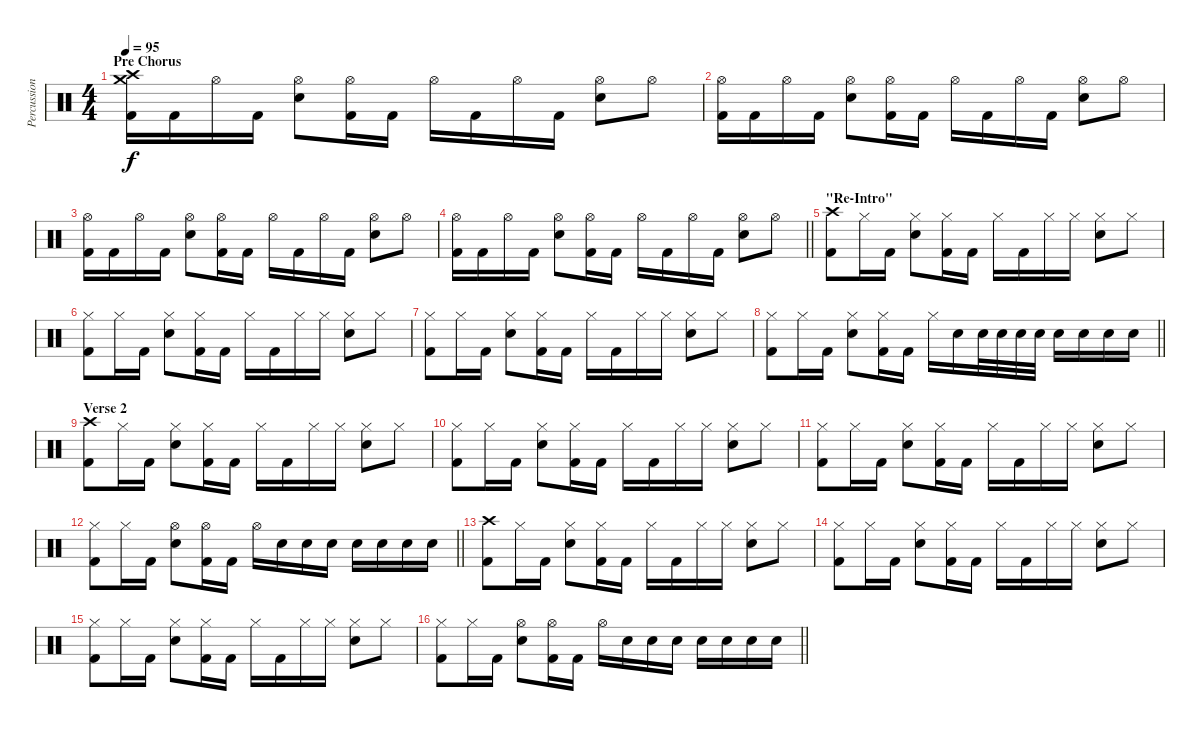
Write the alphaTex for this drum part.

\track ("Percussion" "Percussion") {instrument percussion}
\staff {score}
\articulation defaults
\ts (4 4)
\section ("" "Pre Chorus")
\tempo 95
\clef neutral
\ks c
("Crash medium (hit)" "Crash high (hit)" "Kick (hit) 2").16{dy f} "Kick (hit) 2".16 "Hi-Hat (open)".16 "Kick (hit) 2".16 ("Hi-Hat (open)" "Electric Snare (hit)").8 ("Hi-Hat (open)" "Kick (hit) 2").16 "Kick (hit) 2".16 "Hi-Hat (open)".16 "Kick (hit) 2".16 "Hi-Hat (open)".16 "Kick (hit) 2".16 ("Hi-Hat (open)" "Electric Snare (hit)").8 "Hi-Hat (open)".8 |
("Hi-Hat (open)" "Kick (hit) 2").16 "Kick (hit) 2".16 "Hi-Hat (open)".16 "Kick (hit) 2".16 ("Hi-Hat (open)" "Electric Snare (hit)").8 ("Hi-Hat (open)" "Kick (hit) 2").16 "Kick (hit) 2".16 "Hi-Hat (open)".16 "Kick (hit) 2".16 "Hi-Hat (open)".16 "Kick (hit) 2".16 ("Hi-Hat (open)" "Electric Snare (hit)").8 "Hi-Hat (open)".8 |
("Hi-Hat (open)" "Kick (hit) 2").16 "Kick (hit) 2".16 "Hi-Hat (open)".16 "Kick (hit) 2".16 ("Hi-Hat (open)" "Electric Snare (hit)").8 ("Hi-Hat (open)" "Kick (hit) 2").16 "Kick (hit) 2".16 "Hi-Hat (open)".16 "Kick (hit) 2".16 "Hi-Hat (open)".16 "Kick (hit) 2".16 ("Hi-Hat (open)" "Electric Snare (hit)").8 "Hi-Hat (open)".8 |
\barLineRight lightlight
("Hi-Hat (open)" "Kick (hit) 2").16 "Kick (hit) 2".16 "Hi-Hat (open)".16 "Kick (hit) 2".16 ("Hi-Hat (open)" "Electric Snare (hit)").8 ("Hi-Hat (open)" "Kick (hit) 2").16 "Kick (hit) 2".16 "Hi-Hat (open)".16 "Kick (hit) 2".16 "Hi-Hat (open)".16 "Kick (hit) 2".16 ("Hi-Hat (open)" "Electric Snare (hit)").8 "Hi-Hat (open)".8 |
\section ("" "\"Re-Intro\"")
("Crash high (hit)" "Kick (hit) 2").8 "Hi-Hat (closed)".16 "Kick (hit) 2".16 ("Hi-Hat (closed)" "Electric Snare (hit)").8 ("Hi-Hat (closed)" "Kick (hit) 2").16 "Kick (hit) 2".16 "Hi-Hat (closed)".16 "Kick (hit) 2".16 "Hi-Hat (closed)".16 "Hi-Hat (closed)".16 ("Hi-Hat (closed)" "Electric Snare (hit)").8 "Hi-Hat (closed)".8 |
("Hi-Hat (closed)" "Kick (hit) 2").8 "Hi-Hat (closed)".16 "Kick (hit) 2".16 ("Hi-Hat (closed)" "Electric Snare (hit)").8 ("Hi-Hat (closed)" "Kick (hit) 2").16 "Kick (hit) 2".16 "Hi-Hat (closed)".16 "Kick (hit) 2".16 "Hi-Hat (closed)".16 "Hi-Hat (closed)".16 ("Hi-Hat (closed)" "Electric Snare (hit)").8 "Hi-Hat (closed)".8 |
("Hi-Hat (closed)" "Kick (hit) 2").8 "Hi-Hat (closed)".16 "Kick (hit) 2".16 ("Hi-Hat (closed)" "Electric Snare (hit)").8 ("Hi-Hat (closed)" "Kick (hit) 2").16 "Kick (hit) 2".16 "Hi-Hat (closed)".16 "Kick (hit) 2".16 "Hi-Hat (closed)".16 "Hi-Hat (closed)".16 ("Hi-Hat (closed)" "Electric Snare (hit)").8 "Hi-Hat (closed)".8 |
\barLineRight lightlight
("Hi-Hat (closed)" "Kick (hit) 2").8 "Hi-Hat (closed)".16 "Kick (hit) 2".16 ("Hi-Hat (closed)" "Electric Snare (hit)").8 ("Hi-Hat (closed)" "Kick (hit) 2").16 "Kick (hit) 2".16 "Hi-Hat (closed)".16 "Electric Snare (hit)".16 "Electric Snare (hit)".32 "Electric Snare (hit)".32 "Electric Snare (hit)".32 "Electric Snare (hit)".32 "Electric Snare (hit)".16 "Electric Snare (hit)".16 "Electric Snare (hit)".16 "Electric Snare (hit)".16 |
\section ("" "Verse 2")
("Crash high (hit)" "Kick (hit) 2").8 "Hi-Hat (closed)".16 "Kick (hit) 2".16 ("Hi-Hat (closed)" "Electric Snare (hit)").8 ("Hi-Hat (closed)" "Kick (hit) 2").16 "Kick (hit) 2".16 "Hi-Hat (closed)".16 "Kick (hit) 2".16 "Hi-Hat (closed)".16 "Hi-Hat (closed)".16 ("Hi-Hat (closed)" "Electric Snare (hit)").8 "Hi-Hat (closed)".8 |
("Hi-Hat (closed)" "Kick (hit) 2").8 "Hi-Hat (closed)".16 "Kick (hit) 2".16 ("Hi-Hat (closed)" "Electric Snare (hit)").8 ("Hi-Hat (closed)" "Kick (hit) 2").16 "Kick (hit) 2".16 "Hi-Hat (closed)".16 "Kick (hit) 2".16 "Hi-Hat (closed)".16 "Hi-Hat (closed)".16 ("Hi-Hat (closed)" "Electric Snare (hit)").8 "Hi-Hat (closed)".8 |
("Hi-Hat (closed)" "Kick (hit) 2").8 "Hi-Hat (closed)".16 "Kick (hit) 2".16 ("Hi-Hat (closed)" "Electric Snare (hit)").8 ("Hi-Hat (closed)" "Kick (hit) 2").16 "Kick (hit) 2".16 "Hi-Hat (closed)".16 "Kick (hit) 2".16 "Hi-Hat (closed)".16 "Hi-Hat (closed)".16 ("Hi-Hat (closed)" "Electric Snare (hit)").8 "Hi-Hat (closed)".8 |
\barLineRight lightlight
("Hi-Hat (closed)" "Kick (hit) 2").8 "Hi-Hat (closed)".16 "Kick (hit) 2".16 ("Hi-Hat (open)" "Electric Snare (hit)").8 ("Hi-Hat (open)" "Kick (hit) 2").16 "Kick (hit) 2".16 "Hi-Hat (open)".16 "Electric Snare (hit)".16 "Electric Snare (hit)".16 "Electric Snare (hit)".16 "Electric Snare (hit)".16 "Electric Snare (hit)".16 "Electric Snare (hit)".16 "Electric Snare (hit)".16 |
("Crash high (hit)" "Kick (hit) 2").8 "Hi-Hat (closed)".16 "Kick (hit) 2".16 ("Hi-Hat (closed)" "Electric Snare (hit)").8 ("Hi-Hat (closed)" "Kick (hit) 2").16 "Kick (hit) 2".16 "Hi-Hat (closed)".16 "Kick (hit) 2".16 "Hi-Hat (closed)".16 "Hi-Hat (closed)".16 ("Hi-Hat (closed)" "Electric Snare (hit)").8 "Hi-Hat (closed)".8 |
("Hi-Hat (closed)" "Kick (hit) 2").8 "Hi-Hat (closed)".16 "Kick (hit) 2".16 ("Hi-Hat (closed)" "Electric Snare (hit)").8 ("Hi-Hat (closed)" "Kick (hit) 2").16 "Kick (hit) 2".16 "Hi-Hat (closed)".16 "Kick (hit) 2".16 "Hi-Hat (closed)".16 "Hi-Hat (closed)".16 ("Hi-Hat (closed)" "Electric Snare (hit)").8 "Hi-Hat (closed)".8 |
("Hi-Hat (closed)" "Kick (hit) 2").8 "Hi-Hat (closed)".16 "Kick (hit) 2".16 ("Hi-Hat (closed)" "Electric Snare (hit)").8 ("Hi-Hat (closed)" "Kick (hit) 2").16 "Kick (hit) 2".16 "Hi-Hat (closed)".16 "Kick (hit) 2".16 "Hi-Hat (closed)".16 "Hi-Hat (closed)".16 ("Hi-Hat (closed)" "Electric Snare (hit)").8 "Hi-Hat (closed)".8 |
\barLineRight lightlight
("Hi-Hat (closed)" "Kick (hit) 2").8 "Hi-Hat (closed)".16 "Kick (hit) 2".16 ("Hi-Hat (open)" "Electric Snare (hit)").8 ("Hi-Hat (open)" "Kick (hit) 2").16 "Kick (hit) 2".16 "Hi-Hat (open)".16 "Electric Snare (hit)".16 "Electric Snare (hit)".16 "Electric Snare (hit)".16 "Electric Snare (hit)".16 "Electric Snare (hit)".16 "Electric Snare (hit)".16 "Electric Snare (hit)".16
